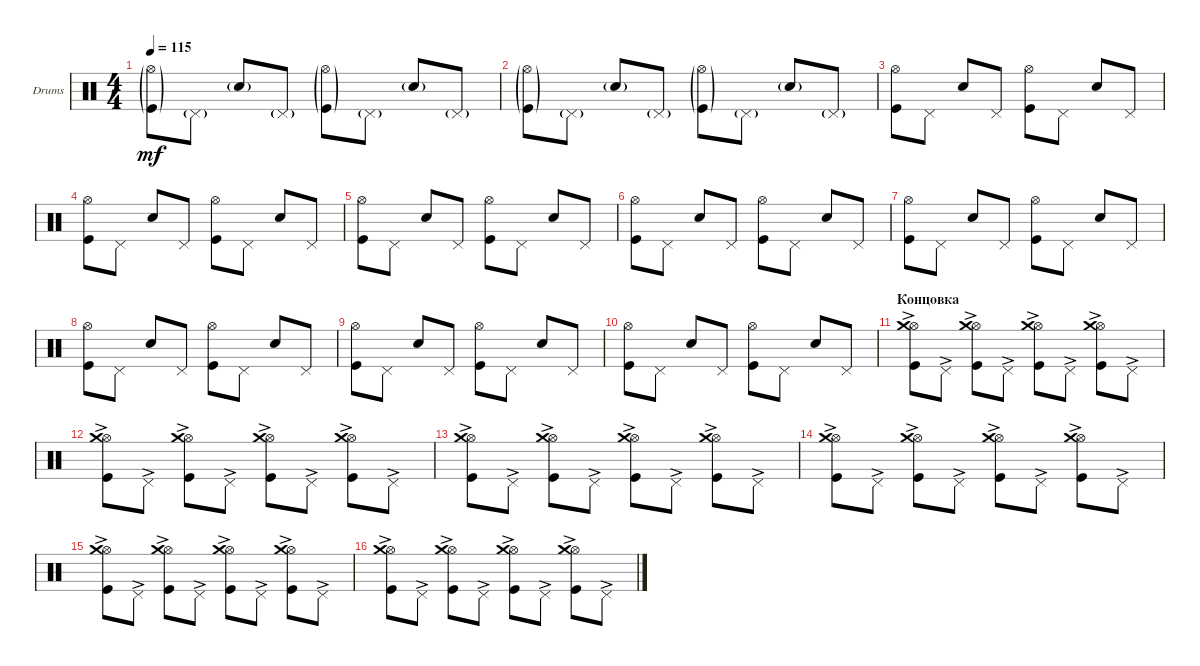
\defaultSystemsLayout 4
\bracketExtendMode groupsimilarinstruments
\firstSystemTrackNameOrientation horizontal
\otherSystemsTrackNameOrientation horizontal
\track ("Е.Кулаков Ударные" "Drums") {instrument percussion}
\staff {score}
\articulation defaults
\ts (4 4)
\tempo 115
\clef neutral
\scale
0.333333
\ks c
("Kick (hit)"{g} "Hi-Hat (open)"{g}).8{dy mf} "Pedal Hi-Hat (hit)"{g}.8 "Snare (hit) 2"{g}.8 "Pedal Hi-Hat (hit)"{g}.8 ("Kick (hit)"{g} "Hi-Hat (open)"{g}).8 "Pedal Hi-Hat (hit)"{g}.8 "Snare (hit) 2"{g}.8 "Pedal Hi-Hat (hit)"{g}.8 |
\scale
0.333333 ("Kick (hit)"{g} "Hi-Hat (open)"{g}).8 "Pedal Hi-Hat (hit)"{g}.8 "Snare (hit) 2"{g}.8 "Pedal Hi-Hat (hit)"{g}.8 ("Kick (hit)"{g} "Hi-Hat (open)"{g}).8 "Pedal Hi-Hat (hit)"{g}.8 "Snare (hit) 2"{g}.8 "Pedal Hi-Hat (hit)"{g}.8 |
\scale
0.333333 ("Kick (hit)" "Hi-Hat (open)").8 "Pedal Hi-Hat (hit)".8 "Snare (hit) 2".8 "Pedal Hi-Hat (hit)".8 ("Kick (hit)" "Hi-Hat (open)").8 "Pedal Hi-Hat (hit)".8 "Snare (hit) 2".8 "Pedal Hi-Hat (hit)".8 |
("Kick (hit)" "Hi-Hat (open)").8 "Pedal Hi-Hat (hit)".8 "Snare (hit) 2".8 "Pedal Hi-Hat (hit)".8 ("Kick (hit)" "Hi-Hat (open)").8 "Pedal Hi-Hat (hit)".8 "Snare (hit) 2".8 "Pedal Hi-Hat (hit)".8 |
("Kick (hit)" "Hi-Hat (open)").8 "Pedal Hi-Hat (hit)".8 "Snare (hit) 2".8 "Pedal Hi-Hat (hit)".8 ("Kick (hit)" "Hi-Hat (open)").8 "Pedal Hi-Hat (hit)".8 "Snare (hit) 2".8 "Pedal Hi-Hat (hit)".8 |
("Kick (hit)" "Hi-Hat (open)").8 "Pedal Hi-Hat (hit)".8 "Snare (hit) 2".8 "Pedal Hi-Hat (hit)".8 ("Kick (hit)" "Hi-Hat (open)").8 "Pedal Hi-Hat (hit)".8 "Snare (hit) 2".8 "Pedal Hi-Hat (hit)".8 |
("Kick (hit)" "Hi-Hat (open)").8 "Pedal Hi-Hat (hit)".8 "Snare (hit) 2".8 "Pedal Hi-Hat (hit)".8 ("Kick (hit)" "Hi-Hat (open)").8 "Pedal Hi-Hat (hit)".8 "Snare (hit) 2".8 "Pedal Hi-Hat (hit)".8 |
("Kick (hit)" "Hi-Hat (open)").8 "Pedal Hi-Hat (hit)".8 "Snare (hit) 2".8 "Pedal Hi-Hat (hit)".8 ("Kick (hit)" "Hi-Hat (open)").8 "Pedal Hi-Hat (hit)".8 "Snare (hit) 2".8 "Pedal Hi-Hat (hit)".8 |
("Kick (hit)" "Hi-Hat (open)").8 "Pedal Hi-Hat (hit)".8 "Snare (hit) 2".8 "Pedal Hi-Hat (hit)".8 ("Kick (hit)" "Hi-Hat (open)").8 "Pedal Hi-Hat (hit)".8 "Snare (hit) 2".8 "Pedal Hi-Hat (hit)".8 |
("Kick (hit)" "Hi-Hat (open)").8 "Pedal Hi-Hat (hit)".8 "Snare (hit) 2".8 "Pedal Hi-Hat (hit)".8 ("Kick (hit)" "Hi-Hat (open)").8 "Pedal Hi-Hat (hit)".8 "Snare (hit) 2".8 "Pedal Hi-Hat (hit)".8 |
\section ("" "Концовка")
\scale
0.333333 ("Kick (hit)"{ac} "Hi-Hat (open)"{ac} "Crash medium (hit)"{ac}).8 "Pedal Hi-Hat (hit)"{ac}.8 ("Kick (hit)"{ac} "Hi-Hat (open)"{ac} "Crash medium (hit)"{ac}).8 "Pedal Hi-Hat (hit)"{ac}.8 ("Kick (hit)"{ac} "Hi-Hat (open)"{ac} "Crash medium (hit)"{ac}).8 "Pedal Hi-Hat (hit)"{ac}.8 ("Kick (hit)"{ac} "Hi-Hat (open)"{ac} "Crash medium (hit)"{ac}).8 "Pedal Hi-Hat (hit)"{ac}.8 |
\scale
0.333333 ("Kick (hit)"{ac} "Hi-Hat (open)"{ac} "Crash medium (hit)"{ac}).8 "Pedal Hi-Hat (hit)"{ac}.8 ("Kick (hit)"{ac} "Hi-Hat (open)"{ac} "Crash medium (hit)"{ac}).8 "Pedal Hi-Hat (hit)"{ac}.8 ("Kick (hit)"{ac} "Hi-Hat (open)"{ac} "Crash medium (hit)"{ac}).8 "Pedal Hi-Hat (hit)"{ac}.8 ("Kick (hit)"{ac} "Hi-Hat (open)"{ac} "Crash medium (hit)"{ac}).8 "Pedal Hi-Hat (hit)"{ac}.8 |
\scale
0.333333 ("Kick (hit)"{ac} "Hi-Hat (open)"{ac} "Crash medium (hit)"{ac}).8 "Pedal Hi-Hat (hit)"{ac}.8 ("Kick (hit)"{ac} "Hi-Hat (open)"{ac} "Crash medium (hit)"{ac}).8 "Pedal Hi-Hat (hit)"{ac}.8 ("Kick (hit)"{ac} "Hi-Hat (open)"{ac} "Crash medium (hit)"{ac}).8 "Pedal Hi-Hat (hit)"{ac}.8 ("Kick (hit)"{ac} "Hi-Hat (open)"{ac} "Crash medium (hit)"{ac}).8 "Pedal Hi-Hat (hit)"{ac}.8 |
\scale
0.333333 ("Kick (hit)"{ac} "Hi-Hat (open)"{ac} "Crash medium (hit)"{ac}).8 "Pedal Hi-Hat (hit)"{ac}.8 ("Kick (hit)"{ac} "Hi-Hat (open)"{ac} "Crash medium (hit)"{ac}).8 "Pedal Hi-Hat (hit)"{ac}.8 ("Kick (hit)"{ac} "Hi-Hat (open)"{ac} "Crash medium (hit)"{ac}).8 "Pedal Hi-Hat (hit)"{ac}.8 ("Kick (hit)"{ac} "Hi-Hat (open)"{ac} "Crash medium (hit)"{ac}).8 "Pedal Hi-Hat (hit)"{ac}.8 |
\scale
0.333333 ("Kick (hit)"{ac} "Hi-Hat (open)"{ac} "Crash medium (hit)"{ac}).8 "Pedal Hi-Hat (hit)"{ac}.8 ("Kick (hit)"{ac} "Hi-Hat (open)"{ac} "Crash medium (hit)"{ac}).8 "Pedal Hi-Hat (hit)"{ac}.8 ("Kick (hit)"{ac} "Hi-Hat (open)"{ac} "Crash medium (hit)"{ac}).8 "Pedal Hi-Hat (hit)"{ac}.8 ("Kick (hit)"{ac} "Hi-Hat (open)"{ac} "Crash medium (hit)"{ac}).8 "Pedal Hi-Hat (hit)"{ac}.8 |
\scale
0.333333 ("Kick (hit)"{ac} "Hi-Hat (open)"{ac} "Crash medium (hit)"{ac}).8 "Pedal Hi-Hat (hit)"{ac}.8 ("Kick (hit)"{ac} "Hi-Hat (open)"{ac} "Crash medium (hit)"{ac}).8 "Pedal Hi-Hat (hit)"{ac}.8 ("Kick (hit)"{ac} "Hi-Hat (open)"{ac} "Crash medium (hit)"{ac}).8 "Pedal Hi-Hat (hit)"{ac}.8 ("Kick (hit)"{ac} "Hi-Hat (open)"{ac} "Crash medium (hit)"{ac}).8 "Pedal Hi-Hat (hit)"{ac}.8
